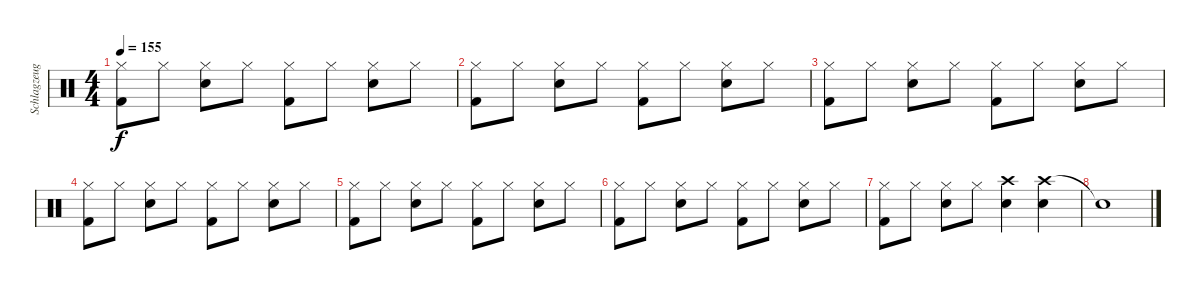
\track ("Schlagzeug - Bela B." "Schlagzeug") {instrument percussion}
\staff {score}
\articulation defaults
\ts (4 4)
\tempo 155
\clef neutral
\ks c
("Hi-Hat (closed)" "Kick (hit) 2").8{dy f} "Hi-Hat (closed)".8 ("Hi-Hat (closed)" "Snare (hit) 2").8 "Hi-Hat (closed)".8 ("Hi-Hat (closed)" "Kick (hit) 2").8 "Hi-Hat (closed)".8 ("Hi-Hat (closed)" "Snare (hit) 2").8 "Hi-Hat (closed)".8 |
("Hi-Hat (closed)" "Kick (hit) 2").8 "Hi-Hat (closed)".8 ("Hi-Hat (closed)" "Snare (hit) 2").8 "Hi-Hat (closed)".8 ("Hi-Hat (closed)" "Kick (hit) 2").8 "Hi-Hat (closed)".8 ("Hi-Hat (closed)" "Snare (hit) 2").8 "Hi-Hat (closed)".8 |
("Hi-Hat (closed)" "Kick (hit) 2").8 "Hi-Hat (closed)".8 ("Hi-Hat (closed)" "Snare (hit) 2").8 "Hi-Hat (closed)".8 ("Hi-Hat (closed)" "Kick (hit) 2").8 "Hi-Hat (closed)".8 ("Hi-Hat (closed)" "Snare (hit) 2").8 "Hi-Hat (closed)".8 |
("Hi-Hat (closed)" "Kick (hit) 2").8 "Hi-Hat (closed)".8 ("Hi-Hat (closed)" "Snare (hit) 2").8 "Hi-Hat (closed)".8 ("Hi-Hat (closed)" "Kick (hit) 2").8 "Hi-Hat (closed)".8 ("Hi-Hat (closed)" "Snare (hit) 2").8 "Hi-Hat (closed)".8 |
("Hi-Hat (closed)" "Kick (hit) 2").8 "Hi-Hat (closed)".8 ("Hi-Hat (closed)" "Snare (hit) 2").8 "Hi-Hat (closed)".8 ("Hi-Hat (closed)" "Kick (hit) 2").8 "Hi-Hat (closed)".8 ("Hi-Hat (closed)" "Snare (hit) 2").8 "Hi-Hat (closed)".8 |
("Hi-Hat (closed)" "Kick (hit) 2").8 "Hi-Hat (closed)".8 ("Hi-Hat (closed)" "Snare (hit) 2").8 "Hi-Hat (closed)".8 ("Hi-Hat (closed)" "Kick (hit) 2").8 "Hi-Hat (closed)".8 ("Hi-Hat (closed)" "Snare (hit) 2").8 "Hi-Hat (closed)".8 |
("Hi-Hat (closed)" "Kick (hit) 2").8 "Hi-Hat (closed)".8 ("Hi-Hat (closed)" "Snare (hit) 2").8 "Hi-Hat (closed)".8 ("Crash high (hit)" "Snare (hit) 2").4 ("Crash high (hit)" "Snare (hit) 2").4 |
"Snare (hit)"{t}.1
